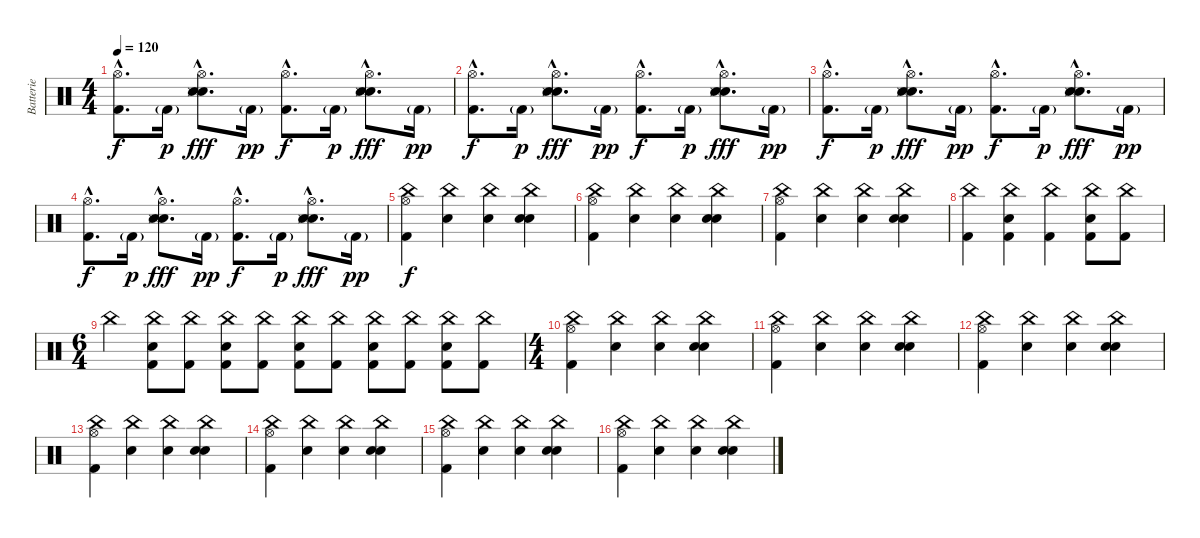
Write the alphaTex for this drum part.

\track ("Batterie" "Batterie") {instrument percussion}
\staff {score}
\articulation defaults
\ts (4 4)
\tempo 120
\clef neutral
\ks c
("Kick (hit) 2"{hac} "Hi-Hat (open)"{hac}).8{d dy f} "Kick (hit) 2"{g}.16{dy p} ("Hand Clap (hit)"{hac} "Electric Snare (hit)"{hac} "Hi-Hat (open)"{hac} "Snare (side stick) 3"{hac}).8{d dy fff} "Kick (hit) 2"{g}.16{dy pp} ("Kick (hit) 2"{hac} "Hi-Hat (open)"{hac}).8{d dy f} "Kick (hit) 2"{g}.16{dy p} ("Hand Clap (hit)"{hac} "Electric Snare (hit)"{hac} "Hi-Hat (open)"{hac} "Snare (side stick) 3"{hac}).8{d dy fff} "Kick (hit) 2"{g}.16{dy pp} |
("Kick (hit) 2"{hac} "Hi-Hat (open)"{hac}).8{d dy f} "Kick (hit) 2"{g}.16{dy p} ("Hand Clap (hit)"{hac} "Electric Snare (hit)"{hac} "Hi-Hat (open)"{hac} "Snare (side stick) 3"{hac}).8{d dy fff} "Kick (hit) 2"{g}.16{dy pp} ("Kick (hit) 2"{hac} "Hi-Hat (open)"{hac}).8{d dy f} "Kick (hit) 2"{g}.16{dy p} ("Hand Clap (hit)"{hac} "Electric Snare (hit)"{hac} "Hi-Hat (open)"{hac} "Snare (side stick) 3"{hac}).8{d dy fff} "Kick (hit) 2"{g}.16{dy pp} |
("Kick (hit) 2"{hac} "Hi-Hat (open)"{hac}).8{d dy f} "Kick (hit) 2"{g}.16{dy p} ("Hand Clap (hit)"{hac} "Electric Snare (hit)"{hac} "Hi-Hat (open)"{hac} "Snare (side stick) 3"{hac}).8{d dy fff} "Kick (hit) 2"{g}.16{dy pp} ("Kick (hit) 2"{hac} "Hi-Hat (open)"{hac}).8{d dy f} "Kick (hit) 2"{g}.16{dy p} ("Hand Clap (hit)"{hac} "Electric Snare (hit)"{hac} "Hi-Hat (open)"{hac} "Snare (side stick) 3"{hac}).8{d dy fff} "Kick (hit) 2"{g}.16{dy pp} |
("Kick (hit) 2"{hac} "Hi-Hat (open)"{hac}).8{d dy f} "Kick (hit) 2"{g}.16{dy p} ("Hand Clap (hit)"{hac} "Electric Snare (hit)"{hac} "Hi-Hat (open)"{hac} "Snare (side stick) 3"{hac}).8{d dy fff} "Kick (hit) 2"{g}.16{dy pp} ("Kick (hit) 2"{hac} "Hi-Hat (open)"{hac}).8{d dy f} "Kick (hit) 2"{g}.16{dy p} ("Hand Clap (hit)"{hac} "Electric Snare (hit)"{hac} "Hi-Hat (open)"{hac} "Snare (side stick) 3"{hac}).8{d dy fff} "Kick (hit) 2"{g}.16{dy pp} |
("China (hit)" "Kick (hit) 2" "Hi-Hat (open)").4{dy f} ("China (hit)" "Electric Snare (hit)").4 ("China (hit)" "Electric Snare (hit)").4 ("China (hit)" "Electric Snare (hit)" "Hand Clap (hit)").4 |
("China (hit)" "Kick (hit) 2" "Hi-Hat (open)").4 ("China (hit)" "Electric Snare (hit)").4 ("China (hit)" "Electric Snare (hit)").4 ("China (hit)" "Electric Snare (hit)" "Hand Clap (hit)").4 |
("China (hit)" "Kick (hit) 2" "Hi-Hat (open)").4 ("China (hit)" "Electric Snare (hit)").4 ("China (hit)" "Electric Snare (hit)").4 ("China (hit)" "Electric Snare (hit)" "Hand Clap (hit)").4 |
("China (hit)" "Kick (hit) 2").4 ("China (hit)" "Electric Snare (hit)" "Kick (hit) 2").4 ("China (hit)" "Kick (hit) 2").4 ("China (hit)" "Electric Snare (hit)" "Kick (hit) 2").8 ("China (hit)" "Kick (hit) 2").8 |
\ts (6 4)
"China (hit)".4 ("China (hit)" "Kick (hit) 2" "Electric Snare (hit)").8 ("China (hit)" "Kick (hit) 2").8 ("China (hit)" "Kick (hit) 2" "Electric Snare (hit)").8 ("China (hit)" "Kick (hit) 2").8 ("China (hit)" "Kick (hit) 2" "Electric Snare (hit)").8 ("China (hit)" "Kick (hit) 2").8 ("China (hit)" "Kick (hit) 2" "Electric Snare (hit)").8 ("China (hit)" "Kick (hit) 2").8 ("China (hit)" "Kick (hit) 2" "Electric Snare (hit)").8 ("China (hit)" "Kick (hit) 2").8 |
\ts (4 4)
("China (hit)" "Kick (hit) 2" "Hi-Hat (open)").4 ("China (hit)" "Electric Snare (hit)").4 ("China (hit)" "Electric Snare (hit)").4 ("China (hit)" "Electric Snare (hit)" "Hand Clap (hit)").4 |
("China (hit)" "Kick (hit) 2" "Hi-Hat (open)").4 ("China (hit)" "Electric Snare (hit)").4 ("China (hit)" "Electric Snare (hit)").4 ("China (hit)" "Electric Snare (hit)" "Hand Clap (hit)").4 |
("China (hit)" "Kick (hit) 2" "Hi-Hat (open)").4 ("China (hit)" "Electric Snare (hit)").4 ("China (hit)" "Electric Snare (hit)").4 ("China (hit)" "Electric Snare (hit)" "Hand Clap (hit)").4 |
("China (hit)" "Kick (hit) 2" "Hi-Hat (open)").4 ("China (hit)" "Electric Snare (hit)").4 ("China (hit)" "Electric Snare (hit)").4 ("China (hit)" "Electric Snare (hit)" "Hand Clap (hit)").4 |
("China (hit)" "Kick (hit) 2" "Hi-Hat (open)").4 ("China (hit)" "Electric Snare (hit)").4 ("China (hit)" "Electric Snare (hit)").4 ("China (hit)" "Electric Snare (hit)" "Hand Clap (hit)").4 |
("China (hit)" "Kick (hit) 2" "Hi-Hat (open)").4 ("China (hit)" "Electric Snare (hit)").4 ("China (hit)" "Electric Snare (hit)").4 ("China (hit)" "Electric Snare (hit)" "Hand Clap (hit)").4 |
("China (hit)" "Kick (hit) 2" "Hi-Hat (open)").4 ("China (hit)" "Electric Snare (hit)").4 ("China (hit)" "Electric Snare (hit)").4 ("China (hit)" "Electric Snare (hit)" "Hand Clap (hit)").4
